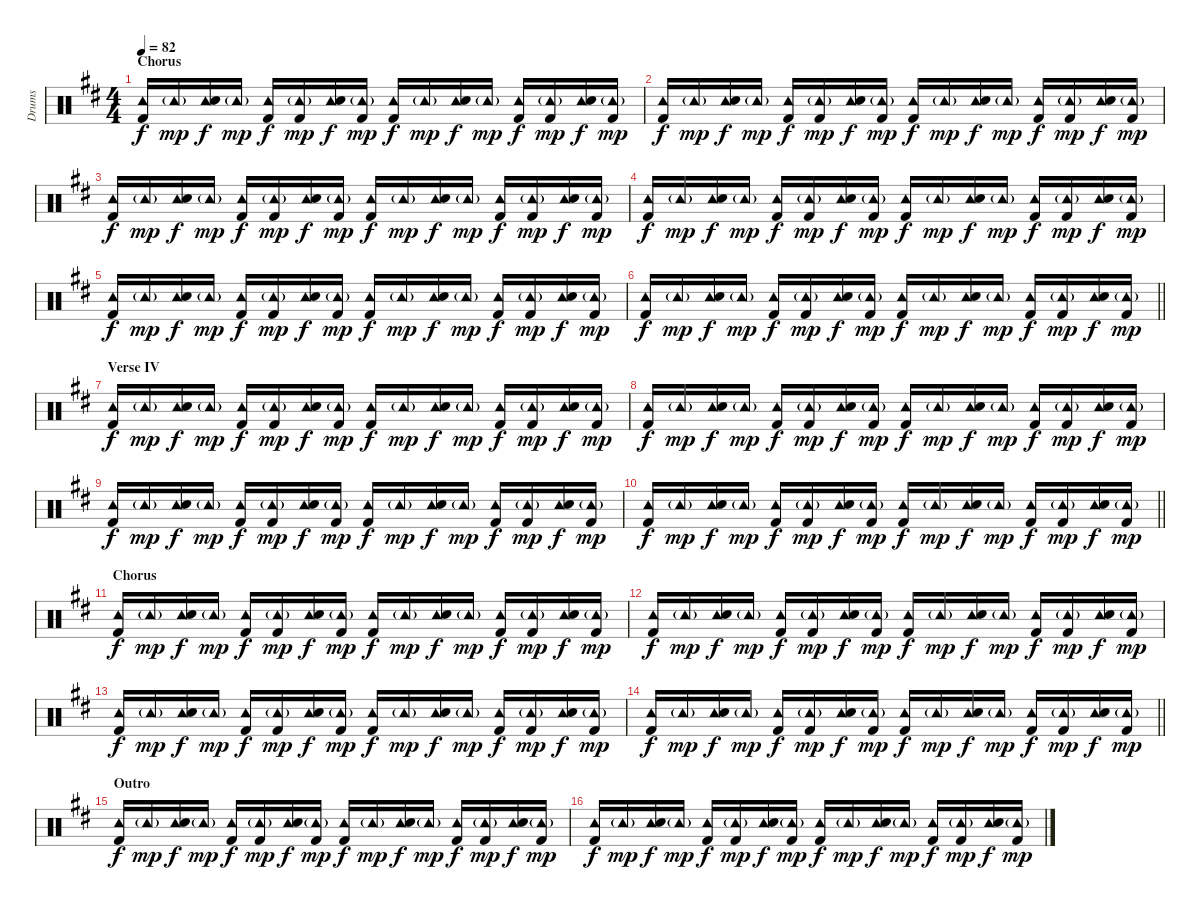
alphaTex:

\track ("Drums" "Drums") {instrument percussion}
\staff {score}
\articulation defaults
\ts (4 4)
\section ("" "Chorus")
\tempo 82
\clef neutral
\ks d
("Tambourine (hit)" "Kick (hit) 2").16{dy f} "Tambourine (hit)"{g}.16{dy mp} ("Tambourine (hit)" "Snare (hit) 2").16{dy f} "Tambourine (hit)"{g}.16{dy mp} ("Tambourine (hit)" "Kick (hit) 2").16{dy f} ("Tambourine (hit)"{g} "Kick (hit) 2").16{dy mp} ("Tambourine (hit)" "Snare (hit) 2").16{dy f} ("Tambourine (hit)"{g} "Kick (hit) 2").16{dy mp} ("Tambourine (hit)" "Kick (hit) 2").16{dy f} "Tambourine (hit)"{g}.16{dy mp} ("Tambourine (hit)" "Snare (hit) 2").16{dy f} "Tambourine (hit)"{g}.16{dy mp} ("Tambourine (hit)" "Kick (hit) 2").16{dy f} ("Tambourine (hit)"{g} "Kick (hit) 2").16{dy mp} ("Tambourine (hit)" "Snare (hit) 2").16{dy f} ("Tambourine (hit)"{g} "Kick (hit) 2").16{dy mp} |
("Tambourine (hit)" "Kick (hit) 2").16{dy f} "Tambourine (hit)"{g}.16{dy mp} ("Tambourine (hit)" "Snare (hit) 2").16{dy f} "Tambourine (hit)"{g}.16{dy mp} ("Tambourine (hit)" "Kick (hit) 2").16{dy f} ("Tambourine (hit)"{g} "Kick (hit) 2").16{dy mp} ("Tambourine (hit)" "Snare (hit) 2").16{dy f} ("Tambourine (hit)"{g} "Kick (hit) 2").16{dy mp} ("Tambourine (hit)" "Kick (hit) 2").16{dy f} "Tambourine (hit)"{g}.16{dy mp} ("Tambourine (hit)" "Snare (hit) 2").16{dy f} "Tambourine (hit)"{g}.16{dy mp} ("Tambourine (hit)" "Kick (hit) 2").16{dy f} ("Tambourine (hit)"{g} "Kick (hit) 2").16{dy mp} ("Tambourine (hit)" "Snare (hit) 2").16{dy f} ("Tambourine (hit)"{g} "Kick (hit) 2").16{dy mp} |
("Tambourine (hit)" "Kick (hit) 2").16{dy f} "Tambourine (hit)"{g}.16{dy mp} ("Tambourine (hit)" "Snare (hit) 2").16{dy f} "Tambourine (hit)"{g}.16{dy mp} ("Tambourine (hit)" "Kick (hit) 2").16{dy f} ("Tambourine (hit)"{g} "Kick (hit) 2").16{dy mp} ("Tambourine (hit)" "Snare (hit) 2").16{dy f} ("Tambourine (hit)"{g} "Kick (hit) 2").16{dy mp} ("Tambourine (hit)" "Kick (hit) 2").16{dy f} "Tambourine (hit)"{g}.16{dy mp} ("Tambourine (hit)" "Snare (hit) 2").16{dy f} "Tambourine (hit)"{g}.16{dy mp} ("Tambourine (hit)" "Kick (hit) 2").16{dy f} ("Tambourine (hit)"{g} "Kick (hit) 2").16{dy mp} ("Tambourine (hit)" "Snare (hit) 2").16{dy f} ("Tambourine (hit)"{g} "Kick (hit) 2").16{dy mp} |
("Tambourine (hit)" "Kick (hit) 2").16{dy f} "Tambourine (hit)"{g}.16{dy mp} ("Tambourine (hit)" "Snare (hit) 2").16{dy f} "Tambourine (hit)"{g}.16{dy mp} ("Tambourine (hit)" "Kick (hit) 2").16{dy f} ("Tambourine (hit)"{g} "Kick (hit) 2").16{dy mp} ("Tambourine (hit)" "Snare (hit) 2").16{dy f} ("Tambourine (hit)"{g} "Kick (hit) 2").16{dy mp} ("Tambourine (hit)" "Kick (hit) 2").16{dy f} "Tambourine (hit)"{g}.16{dy mp} ("Tambourine (hit)" "Snare (hit) 2").16{dy f} "Tambourine (hit)"{g}.16{dy mp} ("Tambourine (hit)" "Kick (hit) 2").16{dy f} ("Tambourine (hit)"{g} "Kick (hit) 2").16{dy mp} ("Tambourine (hit)" "Snare (hit) 2").16{dy f} ("Tambourine (hit)"{g} "Kick (hit) 2").16{dy mp} |
("Tambourine (hit)" "Kick (hit) 2").16{dy f} "Tambourine (hit)"{g}.16{dy mp} ("Tambourine (hit)" "Snare (hit) 2").16{dy f} "Tambourine (hit)"{g}.16{dy mp} ("Tambourine (hit)" "Kick (hit) 2").16{dy f} ("Tambourine (hit)"{g} "Kick (hit) 2").16{dy mp} ("Tambourine (hit)" "Snare (hit) 2").16{dy f} ("Tambourine (hit)"{g} "Kick (hit) 2").16{dy mp} ("Tambourine (hit)" "Kick (hit) 2").16{dy f} "Tambourine (hit)"{g}.16{dy mp} ("Tambourine (hit)" "Snare (hit) 2").16{dy f} "Tambourine (hit)"{g}.16{dy mp} ("Tambourine (hit)" "Kick (hit) 2").16{dy f} ("Tambourine (hit)"{g} "Kick (hit) 2").16{dy mp} ("Tambourine (hit)" "Snare (hit) 2").16{dy f} ("Tambourine (hit)"{g} "Kick (hit) 2").16{dy mp} |
\barLineRight lightlight
("Tambourine (hit)" "Kick (hit) 2").16{dy f} "Tambourine (hit)"{g}.16{dy mp} ("Tambourine (hit)" "Snare (hit) 2").16{dy f} "Tambourine (hit)"{g}.16{dy mp} ("Tambourine (hit)" "Kick (hit) 2").16{dy f} ("Tambourine (hit)"{g} "Kick (hit) 2").16{dy mp} ("Tambourine (hit)" "Snare (hit) 2").16{dy f} ("Tambourine (hit)"{g} "Kick (hit) 2").16{dy mp} ("Tambourine (hit)" "Kick (hit) 2").16{dy f} "Tambourine (hit)"{g}.16{dy mp} ("Tambourine (hit)" "Snare (hit) 2").16{dy f} "Tambourine (hit)"{g}.16{dy mp} ("Tambourine (hit)" "Kick (hit) 2").16{dy f} ("Tambourine (hit)"{g} "Kick (hit) 2").16{dy mp} ("Tambourine (hit)" "Snare (hit) 2").16{dy f} ("Tambourine (hit)"{g} "Kick (hit) 2").16{dy mp} |
\section ("" "Verse IV")
("Tambourine (hit)" "Kick (hit) 2").16{dy f} "Tambourine (hit)"{g}.16{dy mp} ("Tambourine (hit)" "Snare (hit) 2").16{dy f} "Tambourine (hit)"{g}.16{dy mp} ("Tambourine (hit)" "Kick (hit) 2").16{dy f} ("Tambourine (hit)"{g} "Kick (hit) 2").16{dy mp} ("Tambourine (hit)" "Snare (hit) 2").16{dy f} ("Tambourine (hit)"{g} "Kick (hit) 2").16{dy mp} ("Tambourine (hit)" "Kick (hit) 2").16{dy f} "Tambourine (hit)"{g}.16{dy mp} ("Tambourine (hit)" "Snare (hit) 2").16{dy f} "Tambourine (hit)"{g}.16{dy mp} ("Tambourine (hit)" "Kick (hit) 2").16{dy f} ("Tambourine (hit)"{g} "Kick (hit) 2").16{dy mp} ("Tambourine (hit)" "Snare (hit) 2").16{dy f} ("Tambourine (hit)"{g} "Kick (hit) 2").16{dy mp} |
("Tambourine (hit)" "Kick (hit) 2").16{dy f} "Tambourine (hit)"{g}.16{dy mp} ("Tambourine (hit)" "Snare (hit) 2").16{dy f} "Tambourine (hit)"{g}.16{dy mp} ("Tambourine (hit)" "Kick (hit) 2").16{dy f} ("Tambourine (hit)"{g} "Kick (hit) 2").16{dy mp} ("Tambourine (hit)" "Snare (hit) 2").16{dy f} ("Tambourine (hit)"{g} "Kick (hit) 2").16{dy mp} ("Tambourine (hit)" "Kick (hit) 2").16{dy f} "Tambourine (hit)"{g}.16{dy mp} ("Tambourine (hit)" "Snare (hit) 2").16{dy f} "Tambourine (hit)"{g}.16{dy mp} ("Tambourine (hit)" "Kick (hit) 2").16{dy f} ("Tambourine (hit)"{g} "Kick (hit) 2").16{dy mp} ("Tambourine (hit)" "Snare (hit) 2").16{dy f} ("Tambourine (hit)"{g} "Kick (hit) 2").16{dy mp} |
("Tambourine (hit)" "Kick (hit) 2").16{dy f} "Tambourine (hit)"{g}.16{dy mp} ("Tambourine (hit)" "Snare (hit) 2").16{dy f} "Tambourine (hit)"{g}.16{dy mp} ("Tambourine (hit)" "Kick (hit) 2").16{dy f} ("Tambourine (hit)"{g} "Kick (hit) 2").16{dy mp} ("Tambourine (hit)" "Snare (hit) 2").16{dy f} ("Tambourine (hit)"{g} "Kick (hit) 2").16{dy mp} ("Tambourine (hit)" "Kick (hit) 2").16{dy f} "Tambourine (hit)"{g}.16{dy mp} ("Tambourine (hit)" "Snare (hit) 2").16{dy f} "Tambourine (hit)"{g}.16{dy mp} ("Tambourine (hit)" "Kick (hit) 2").16{dy f} ("Tambourine (hit)"{g} "Kick (hit) 2").16{dy mp} ("Tambourine (hit)" "Snare (hit) 2").16{dy f} ("Tambourine (hit)"{g} "Kick (hit) 2").16{dy mp} |
\barLineRight lightlight
("Tambourine (hit)" "Kick (hit) 2").16{dy f} "Tambourine (hit)"{g}.16{dy mp} ("Tambourine (hit)" "Snare (hit) 2").16{dy f} "Tambourine (hit)"{g}.16{dy mp} ("Tambourine (hit)" "Kick (hit) 2").16{dy f} ("Tambourine (hit)"{g} "Kick (hit) 2").16{dy mp} ("Tambourine (hit)" "Snare (hit) 2").16{dy f} ("Tambourine (hit)"{g} "Kick (hit) 2").16{dy mp} ("Tambourine (hit)" "Kick (hit) 2").16{dy f} "Tambourine (hit)"{g}.16{dy mp} ("Tambourine (hit)" "Snare (hit) 2").16{dy f} "Tambourine (hit)"{g}.16{dy mp} ("Tambourine (hit)" "Kick (hit) 2").16{dy f} ("Tambourine (hit)"{g} "Kick (hit) 2").16{dy mp} ("Tambourine (hit)" "Snare (hit) 2").16{dy f} ("Tambourine (hit)"{g} "Kick (hit) 2").16{dy mp} |
\section ("" "Chorus")
("Tambourine (hit)" "Kick (hit) 2").16{dy f} "Tambourine (hit)"{g}.16{dy mp} ("Tambourine (hit)" "Snare (hit) 2").16{dy f} "Tambourine (hit)"{g}.16{dy mp} ("Tambourine (hit)" "Kick (hit) 2").16{dy f} ("Tambourine (hit)"{g} "Kick (hit) 2").16{dy mp} ("Tambourine (hit)" "Snare (hit) 2").16{dy f} ("Tambourine (hit)"{g} "Kick (hit) 2").16{dy mp} ("Tambourine (hit)" "Kick (hit) 2").16{dy f} "Tambourine (hit)"{g}.16{dy mp} ("Tambourine (hit)" "Snare (hit) 2").16{dy f} "Tambourine (hit)"{g}.16{dy mp} ("Tambourine (hit)" "Kick (hit) 2").16{dy f} ("Tambourine (hit)"{g} "Kick (hit) 2").16{dy mp} ("Tambourine (hit)" "Snare (hit) 2").16{dy f} ("Tambourine (hit)"{g} "Kick (hit) 2").16{dy mp} |
("Tambourine (hit)" "Kick (hit) 2").16{dy f} "Tambourine (hit)"{g}.16{dy mp} ("Tambourine (hit)" "Snare (hit) 2").16{dy f} "Tambourine (hit)"{g}.16{dy mp} ("Tambourine (hit)" "Kick (hit) 2").16{dy f} ("Tambourine (hit)"{g} "Kick (hit) 2").16{dy mp} ("Tambourine (hit)" "Snare (hit) 2").16{dy f} ("Tambourine (hit)"{g} "Kick (hit) 2").16{dy mp} ("Tambourine (hit)" "Kick (hit) 2").16{dy f} "Tambourine (hit)"{g}.16{dy mp} ("Tambourine (hit)" "Snare (hit) 2").16{dy f} "Tambourine (hit)"{g}.16{dy mp} ("Tambourine (hit)" "Kick (hit) 2").16{dy f} ("Tambourine (hit)"{g} "Kick (hit) 2").16{dy mp} ("Tambourine (hit)" "Snare (hit) 2").16{dy f} ("Tambourine (hit)"{g} "Kick (hit) 2").16{dy mp} |
("Tambourine (hit)" "Kick (hit) 2").16{dy f} "Tambourine (hit)"{g}.16{dy mp} ("Tambourine (hit)" "Snare (hit) 2").16{dy f} "Tambourine (hit)"{g}.16{dy mp} ("Tambourine (hit)" "Kick (hit) 2").16{dy f} ("Tambourine (hit)"{g} "Kick (hit) 2").16{dy mp} ("Tambourine (hit)" "Snare (hit) 2").16{dy f} ("Tambourine (hit)"{g} "Kick (hit) 2").16{dy mp} ("Tambourine (hit)" "Kick (hit) 2").16{dy f} "Tambourine (hit)"{g}.16{dy mp} ("Tambourine (hit)" "Snare (hit) 2").16{dy f} "Tambourine (hit)"{g}.16{dy mp} ("Tambourine (hit)" "Kick (hit) 2").16{dy f} ("Tambourine (hit)"{g} "Kick (hit) 2").16{dy mp} ("Tambourine (hit)" "Snare (hit) 2").16{dy f} ("Tambourine (hit)"{g} "Kick (hit) 2").16{dy mp} |
\barLineRight lightlight
("Tambourine (hit)" "Kick (hit) 2").16{dy f} "Tambourine (hit)"{g}.16{dy mp} ("Tambourine (hit)" "Snare (hit) 2").16{dy f} "Tambourine (hit)"{g}.16{dy mp} ("Tambourine (hit)" "Kick (hit) 2").16{dy f} ("Tambourine (hit)"{g} "Kick (hit) 2").16{dy mp} ("Tambourine (hit)" "Snare (hit) 2").16{dy f} ("Tambourine (hit)"{g} "Kick (hit) 2").16{dy mp} ("Tambourine (hit)" "Kick (hit) 2").16{dy f} "Tambourine (hit)"{g}.16{dy mp} ("Tambourine (hit)" "Snare (hit) 2").16{dy f} "Tambourine (hit)"{g}.16{dy mp} ("Tambourine (hit)" "Kick (hit) 2").16{dy f} ("Tambourine (hit)"{g} "Kick (hit) 2").16{dy mp} ("Tambourine (hit)" "Snare (hit) 2").16{dy f} ("Tambourine (hit)"{g} "Kick (hit) 2").16{dy mp} |
\section ("" "Outro")
("Tambourine (hit)" "Kick (hit) 2").16{dy f} "Tambourine (hit)"{g}.16{dy mp} ("Tambourine (hit)" "Snare (hit) 2").16{dy f} "Tambourine (hit)"{g}.16{dy mp} ("Tambourine (hit)" "Kick (hit) 2").16{dy f} ("Tambourine (hit)"{g} "Kick (hit) 2").16{dy mp} ("Tambourine (hit)" "Snare (hit) 2").16{dy f} ("Tambourine (hit)"{g} "Kick (hit) 2").16{dy mp} ("Tambourine (hit)" "Kick (hit) 2").16{dy f} "Tambourine (hit)"{g}.16{dy mp} ("Tambourine (hit)" "Snare (hit) 2").16{dy f} "Tambourine (hit)"{g}.16{dy mp} ("Tambourine (hit)" "Kick (hit) 2").16{dy f} ("Tambourine (hit)"{g} "Kick (hit) 2").16{dy mp} ("Tambourine (hit)" "Snare (hit) 2").16{dy f} ("Tambourine (hit)"{g} "Kick (hit) 2").16{dy mp} |
("Tambourine (hit)" "Kick (hit) 2").16{dy f} "Tambourine (hit)"{g}.16{dy mp} ("Tambourine (hit)" "Snare (hit) 2").16{dy f} "Tambourine (hit)"{g}.16{dy mp} ("Tambourine (hit)" "Kick (hit) 2").16{dy f} ("Tambourine (hit)"{g} "Kick (hit) 2").16{dy mp} ("Tambourine (hit)" "Snare (hit) 2").16{dy f} ("Tambourine (hit)"{g} "Kick (hit) 2").16{dy mp} ("Tambourine (hit)" "Kick (hit) 2").16{dy f} "Tambourine (hit)"{g}.16{dy mp} ("Tambourine (hit)" "Snare (hit) 2").16{dy f} "Tambourine (hit)"{g}.16{dy mp} ("Tambourine (hit)" "Kick (hit) 2").16{dy f} ("Tambourine (hit)"{g} "Kick (hit) 2").16{dy mp} ("Tambourine (hit)" "Snare (hit) 2").16{dy f} ("Tambourine (hit)"{g} "Kick (hit) 2").16{dy mp}
